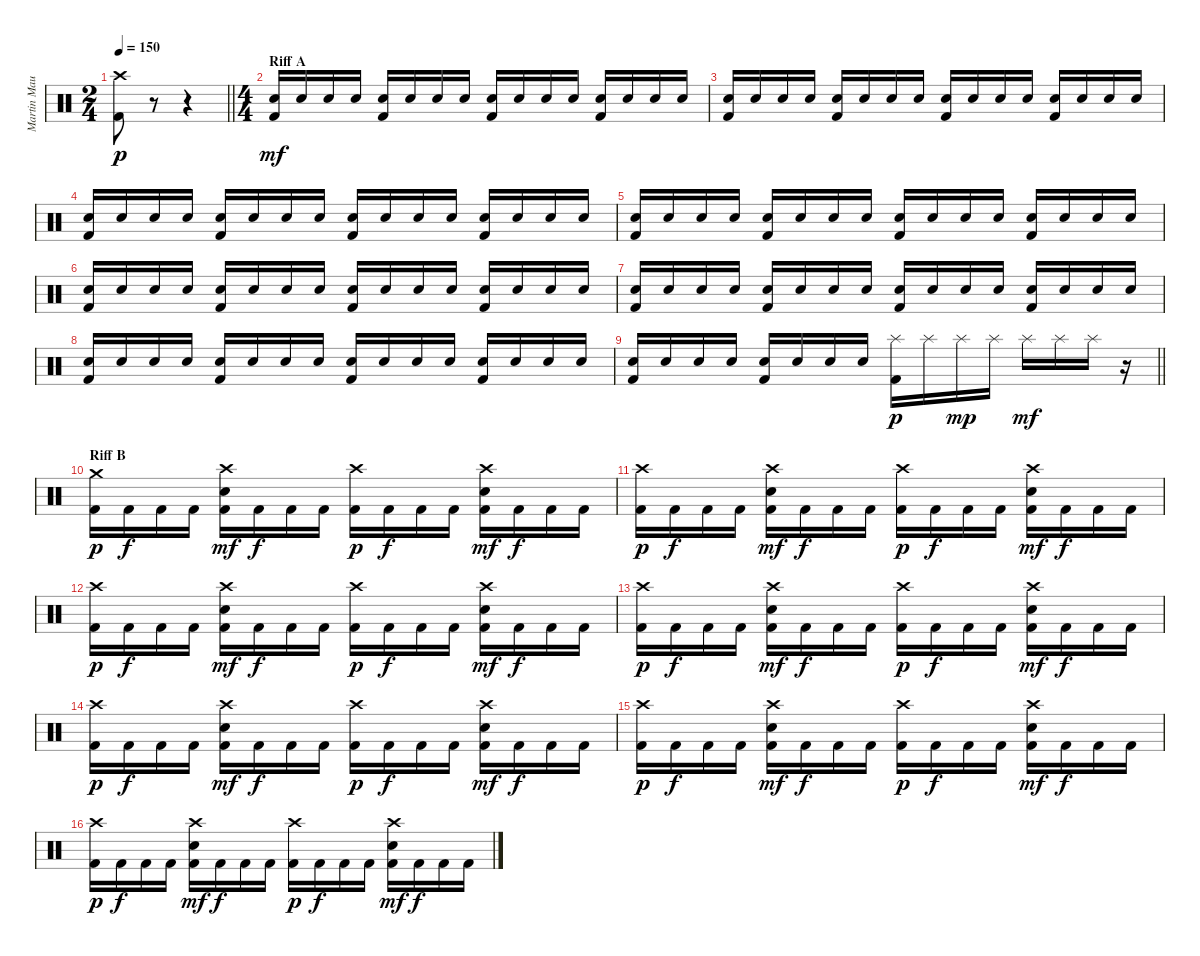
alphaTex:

\track ("Martin Maurais" "Martin Mau") {instrument percussion}
\staff {score}
\articulation defaults
\ts (2 4)
\tempo 150
\clef neutral
\barLineRight lightlight
\ks c
("Crash high (hit)" "Kick (hit) 2").8{dy p} r.8 r.4 |
\ts (4 4)
\section ("" "Riff A")
("Electric Snare (hit)" "Kick (hit) 2").16{dy mf} "Electric Snare (hit)".16 "Electric Snare (hit)".16 "Electric Snare (hit)".16 ("Electric Snare (hit)" "Kick (hit) 2").16 "Electric Snare (hit)".16 "Electric Snare (hit)".16 "Electric Snare (hit)".16 ("Electric Snare (hit)" "Kick (hit) 2").16 "Electric Snare (hit)".16 "Electric Snare (hit)".16 "Electric Snare (hit)".16 ("Electric Snare (hit)" "Kick (hit) 2").16 "Electric Snare (hit)".16 "Electric Snare (hit)".16 "Electric Snare (hit)".16 |
("Electric Snare (hit)" "Kick (hit) 2").16 "Electric Snare (hit)".16 "Electric Snare (hit)".16 "Electric Snare (hit)".16 ("Electric Snare (hit)" "Kick (hit) 2").16 "Electric Snare (hit)".16 "Electric Snare (hit)".16 "Electric Snare (hit)".16 ("Electric Snare (hit)" "Kick (hit) 2").16 "Electric Snare (hit)".16 "Electric Snare (hit)".16 "Electric Snare (hit)".16 ("Electric Snare (hit)" "Kick (hit) 2").16 "Electric Snare (hit)".16 "Electric Snare (hit)".16 "Electric Snare (hit)".16 |
("Electric Snare (hit)" "Kick (hit) 2").16 "Electric Snare (hit)".16 "Electric Snare (hit)".16 "Electric Snare (hit)".16 ("Electric Snare (hit)" "Kick (hit) 2").16 "Electric Snare (hit)".16 "Electric Snare (hit)".16 "Electric Snare (hit)".16 ("Electric Snare (hit)" "Kick (hit) 2").16 "Electric Snare (hit)".16 "Electric Snare (hit)".16 "Electric Snare (hit)".16 ("Electric Snare (hit)" "Kick (hit) 2").16 "Electric Snare (hit)".16 "Electric Snare (hit)".16 "Electric Snare (hit)".16 |
("Electric Snare (hit)" "Kick (hit) 2").16 "Electric Snare (hit)".16 "Electric Snare (hit)".16 "Electric Snare (hit)".16 ("Electric Snare (hit)" "Kick (hit) 2").16 "Electric Snare (hit)".16 "Electric Snare (hit)".16 "Electric Snare (hit)".16 ("Electric Snare (hit)" "Kick (hit) 2").16 "Electric Snare (hit)".16 "Electric Snare (hit)".16 "Electric Snare (hit)".16 ("Electric Snare (hit)" "Kick (hit) 2").16 "Electric Snare (hit)".16 "Electric Snare (hit)".16 "Electric Snare (hit)".16 |
("Electric Snare (hit)" "Kick (hit) 2").16 "Electric Snare (hit)".16 "Electric Snare (hit)".16 "Electric Snare (hit)".16 ("Electric Snare (hit)" "Kick (hit) 2").16 "Electric Snare (hit)".16 "Electric Snare (hit)".16 "Electric Snare (hit)".16 ("Electric Snare (hit)" "Kick (hit) 2").16 "Electric Snare (hit)".16 "Electric Snare (hit)".16 "Electric Snare (hit)".16 ("Electric Snare (hit)" "Kick (hit) 2").16 "Electric Snare (hit)".16 "Electric Snare (hit)".16 "Electric Snare (hit)".16 |
("Electric Snare (hit)" "Kick (hit) 2").16 "Electric Snare (hit)".16 "Electric Snare (hit)".16 "Electric Snare (hit)".16 ("Electric Snare (hit)" "Kick (hit) 2").16 "Electric Snare (hit)".16 "Electric Snare (hit)".16 "Electric Snare (hit)".16 ("Electric Snare (hit)" "Kick (hit) 2").16 "Electric Snare (hit)".16 "Electric Snare (hit)".16 "Electric Snare (hit)".16 ("Electric Snare (hit)" "Kick (hit) 2").16 "Electric Snare (hit)".16 "Electric Snare (hit)".16 "Electric Snare (hit)".16 |
("Electric Snare (hit)" "Kick (hit) 2").16 "Electric Snare (hit)".16 "Electric Snare (hit)".16 "Electric Snare (hit)".16 ("Electric Snare (hit)" "Kick (hit) 2").16 "Electric Snare (hit)".16 "Electric Snare (hit)".16 "Electric Snare (hit)".16 ("Electric Snare (hit)" "Kick (hit) 2").16 "Electric Snare (hit)".16 "Electric Snare (hit)".16 "Electric Snare (hit)".16 ("Electric Snare (hit)" "Kick (hit) 2").16 "Electric Snare (hit)".16 "Electric Snare (hit)".16 "Electric Snare (hit)".16 |
\barLineRight lightlight
("Electric Snare (hit)" "Kick (hit) 2").16 "Electric Snare (hit)".16 "Electric Snare (hit)".16 "Electric Snare (hit)".16 ("Electric Snare (hit)" "Kick (hit) 2").16 "Electric Snare (hit)".16 "Electric Snare (hit)".16 "Electric Snare (hit)".16 ("Splash (hit)" "Kick (hit) 2").16{dy p} "Splash (hit)".16 "Splash (hit)".16{dy mp} "Splash (hit)".16 "Splash (hit)".16{dy mf} "Splash (hit)".16 "Splash (hit)".16 r.16 |
\section ("" "Riff B")
("Crash medium (hit)" "Kick (hit) 2").16{dy p} "Kick (hit) 2".16{dy f} "Kick (hit) 2".16 "Kick (hit) 2".16 ("Crash high (hit)" "Electric Snare (hit)" "Kick (hit) 2").16{dy mf} "Kick (hit) 2".16{dy f} "Kick (hit) 2".16 "Kick (hit) 2".16 ("Crash high (hit)" "Kick (hit) 2").16{dy p} "Kick (hit) 2".16{dy f} "Kick (hit) 2".16 "Kick (hit) 2".16 ("Crash high (hit)" "Electric Snare (hit)" "Kick (hit) 2").16{dy mf} "Kick (hit) 2".16{dy f} "Kick (hit) 2".16 "Kick (hit) 2".16 |
("Crash high (hit)" "Kick (hit) 2").16{dy p} "Kick (hit) 2".16{dy f} "Kick (hit) 2".16 "Kick (hit) 2".16 ("Crash high (hit)" "Electric Snare (hit)" "Kick (hit) 2").16{dy mf} "Kick (hit) 2".16{dy f} "Kick (hit) 2".16 "Kick (hit) 2".16 ("Crash high (hit)" "Kick (hit) 2").16{dy p} "Kick (hit) 2".16{dy f} "Kick (hit) 2".16 "Kick (hit) 2".16 ("Crash high (hit)" "Electric Snare (hit)" "Kick (hit) 2").16{dy mf} "Kick (hit) 2".16{dy f} "Kick (hit) 2".16 "Kick (hit) 2".16 |
("Crash high (hit)" "Kick (hit) 2").16{dy p} "Kick (hit) 2".16{dy f} "Kick (hit) 2".16 "Kick (hit) 2".16 ("Crash high (hit)" "Electric Snare (hit)" "Kick (hit) 2").16{dy mf} "Kick (hit) 2".16{dy f} "Kick (hit) 2".16 "Kick (hit) 2".16 ("Crash high (hit)" "Kick (hit) 2").16{dy p} "Kick (hit) 2".16{dy f} "Kick (hit) 2".16 "Kick (hit) 2".16 ("Crash high (hit)" "Electric Snare (hit)" "Kick (hit) 2").16{dy mf} "Kick (hit) 2".16{dy f} "Kick (hit) 2".16 "Kick (hit) 2".16 |
("Crash high (hit)" "Kick (hit) 2").16{dy p} "Kick (hit) 2".16{dy f} "Kick (hit) 2".16 "Kick (hit) 2".16 ("Crash high (hit)" "Electric Snare (hit)" "Kick (hit) 2").16{dy mf} "Kick (hit) 2".16{dy f} "Kick (hit) 2".16 "Kick (hit) 2".16 ("Crash high (hit)" "Kick (hit) 2").16{dy p} "Kick (hit) 2".16{dy f} "Kick (hit) 2".16 "Kick (hit) 2".16 ("Crash high (hit)" "Electric Snare (hit)" "Kick (hit) 2").16{dy mf} "Kick (hit) 2".16{dy f} "Kick (hit) 2".16 "Kick (hit) 2".16 |
("Crash high (hit)" "Kick (hit) 2").16{dy p} "Kick (hit) 2".16{dy f} "Kick (hit) 2".16 "Kick (hit) 2".16 ("Crash high (hit)" "Electric Snare (hit)" "Kick (hit) 2").16{dy mf} "Kick (hit) 2".16{dy f} "Kick (hit) 2".16 "Kick (hit) 2".16 ("Crash high (hit)" "Kick (hit) 2").16{dy p} "Kick (hit) 2".16{dy f} "Kick (hit) 2".16 "Kick (hit) 2".16 ("Crash high (hit)" "Electric Snare (hit)" "Kick (hit) 2").16{dy mf} "Kick (hit) 2".16{dy f} "Kick (hit) 2".16 "Kick (hit) 2".16 |
("Crash high (hit)" "Kick (hit) 2").16{dy p} "Kick (hit) 2".16{dy f} "Kick (hit) 2".16 "Kick (hit) 2".16 ("Crash high (hit)" "Electric Snare (hit)" "Kick (hit) 2").16{dy mf} "Kick (hit) 2".16{dy f} "Kick (hit) 2".16 "Kick (hit) 2".16 ("Crash high (hit)" "Kick (hit) 2").16{dy p} "Kick (hit) 2".16{dy f} "Kick (hit) 2".16 "Kick (hit) 2".16 ("Crash high (hit)" "Electric Snare (hit)" "Kick (hit) 2").16{dy mf} "Kick (hit) 2".16{dy f} "Kick (hit) 2".16 "Kick (hit) 2".16 |
("Crash high (hit)" "Kick (hit) 2").16{dy p} "Kick (hit) 2".16{dy f} "Kick (hit) 2".16 "Kick (hit) 2".16 ("Crash high (hit)" "Electric Snare (hit)" "Kick (hit) 2").16{dy mf} "Kick (hit) 2".16{dy f} "Kick (hit) 2".16 "Kick (hit) 2".16 ("Crash high (hit)" "Kick (hit) 2").16{dy p} "Kick (hit) 2".16{dy f} "Kick (hit) 2".16 "Kick (hit) 2".16 ("Crash high (hit)" "Electric Snare (hit)" "Kick (hit) 2").16{dy mf} "Kick (hit) 2".16{dy f} "Kick (hit) 2".16 "Kick (hit) 2".16
